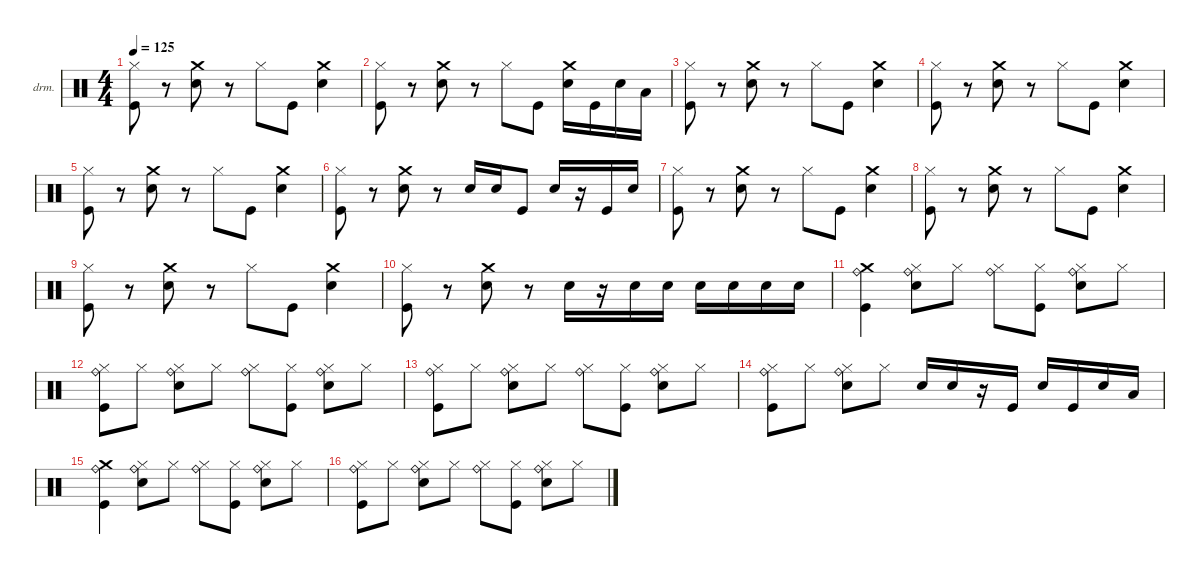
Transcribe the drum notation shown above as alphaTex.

\defaultSystemsLayout 4
\hideDynamics
\bracketExtendMode nobrackets
\firstSystemTrackNameOrientation horizontal
\otherSystemsTrackNameOrientation horizontal
\track ("Drum" "drm.") {instrument percussion}
\staff {score}
\articulation defaults
\ts (4 4)
\tempo 125
\clef neutral
\ks c
("Kick (hit)" "Hi-Hat (closed)").8{dy f} r.8 ("Snare (hit) 2" "Crash medium (hit)").8 r.8 "Hi-Hat (closed)".8 "Kick (hit)".8 ("Snare (hit) 2" "Crash medium (hit)").4 |
("Kick (hit)" "Hi-Hat (closed)").8 r.8 ("Snare (hit) 2" "Crash medium (hit)").8 r.8 "Hi-Hat (closed)".8 "Kick (hit)".8 ("Snare (hit) 2" "Crash medium (hit)").16 "Kick (hit)".16 "Snare (hit) 2".16 "Low Floor Tom (hit)".16 |
("Kick (hit)" "Hi-Hat (closed)").8 r.8 ("Snare (hit) 2" "Crash medium (hit)").8 r.8 "Hi-Hat (closed)".8 "Kick (hit)".8 ("Snare (hit) 2" "Crash medium (hit)").4 |
("Kick (hit)" "Hi-Hat (closed)").8 r.8 ("Snare (hit) 2" "Crash medium (hit)").8 r.8 "Hi-Hat (closed)".8 "Kick (hit)".8 ("Snare (hit) 2" "Crash medium (hit)").4 |
("Kick (hit)" "Hi-Hat (closed)").8 r.8 ("Snare (hit) 2" "Crash medium (hit)").8 r.8 "Hi-Hat (closed)".8 "Kick (hit)".8 ("Snare (hit) 2" "Crash medium (hit)").4 |
("Kick (hit)" "Hi-Hat (closed)").8 r.8 ("Snare (hit) 2" "Crash medium (hit)").8 r.8 "Snare (hit) 2".16 "Snare (hit) 2".16 "Kick (hit)".8 "Snare (hit) 2".16 r.16 "Kick (hit)".16 "Snare (hit) 2".16 |
("Kick (hit)" "Hi-Hat (closed)").8 r.8 ("Snare (hit) 2" "Crash medium (hit)").8 r.8 "Hi-Hat (closed)".8 "Kick (hit)".8 ("Snare (hit) 2" "Crash medium (hit)").4 |
("Kick (hit)" "Hi-Hat (closed)").8 r.8 ("Snare (hit) 2" "Crash medium (hit)").8 r.8 "Hi-Hat (closed)".8 "Kick (hit)".8 ("Snare (hit) 2" "Crash medium (hit)").4 |
("Kick (hit)" "Hi-Hat (closed)").8 r.8 ("Snare (hit) 2" "Crash medium (hit)").8 r.8 "Hi-Hat (closed)".8 "Kick (hit)".8 ("Snare (hit) 2" "Crash medium (hit)").4 |
("Kick (hit)" "Hi-Hat (closed)").8 r.8 ("Snare (hit) 2" "Crash medium (hit)").8 r.8 "Snare (hit) 2".16 r.16 "Snare (hit) 2".16 "Snare (hit) 2".16 "Snare (hit) 2".16 "Snare (hit) 2".16 "Snare (hit) 2".16 "Snare (hit) 2".16 |
("Kick (hit)" "Crash medium (hit)" "Ride (bell)").4 ("Snare (hit) 2" "Hi-Hat (closed)" "Ride (bell)").8 "Hi-Hat (closed)".8 ("Hi-Hat (closed)" "Ride (bell)").8 ("Kick (hit)" "Hi-Hat (closed)").8 ("Snare (hit) 2" "Hi-Hat (closed)" "Ride (bell)").8 "Hi-Hat (closed)".8 |
("Kick (hit)" "Hi-Hat (closed)" "Ride (bell)").8 "Hi-Hat (closed)".8 ("Snare (hit) 2" "Hi-Hat (closed)" "Ride (bell)").8 "Hi-Hat (closed)".8 ("Hi-Hat (closed)" "Ride (bell)").8 ("Kick (hit)" "Hi-Hat (closed)").8 ("Snare (hit) 2" "Hi-Hat (closed)" "Ride (bell)").8 "Hi-Hat (closed)".8 |
("Kick (hit)" "Hi-Hat (closed)" "Ride (bell)").8 "Hi-Hat (closed)".8 ("Snare (hit) 2" "Hi-Hat (closed)" "Ride (bell)").8 "Hi-Hat (closed)".8 ("Hi-Hat (closed)" "Ride (bell)").8 ("Kick (hit)" "Hi-Hat (closed)").8 ("Snare (hit) 2" "Hi-Hat (closed)" "Ride (bell)").8 "Hi-Hat (closed)".8 |
("Kick (hit)" "Hi-Hat (closed)" "Ride (bell)").8 "Hi-Hat (closed)".8 ("Snare (hit) 2" "Hi-Hat (closed)" "Ride (bell)").8 "Hi-Hat (closed)".8 "Snare (hit) 2".16 "Snare (hit) 2".16 r.16 "Kick (hit)".16 "Snare (hit) 2".16 "Kick (hit)".16 "Snare (hit) 2".16 "Low Tom (hit)".16 |
("Kick (hit)" "Crash medium (hit)" "Ride (bell)").4 ("Snare (hit) 2" "Hi-Hat (closed)" "Ride (bell)").8 "Hi-Hat (closed)".8 ("Hi-Hat (closed)" "Ride (bell)").8 ("Kick (hit)" "Hi-Hat (closed)").8 ("Snare (hit) 2" "Hi-Hat (closed)" "Ride (bell)").8 "Hi-Hat (closed)".8 |
("Kick (hit)" "Hi-Hat (closed)" "Ride (bell)").8 "Hi-Hat (closed)".8 ("Snare (hit) 2" "Hi-Hat (closed)" "Ride (bell)").8 "Hi-Hat (closed)".8 ("Hi-Hat (closed)" "Ride (bell)").8 ("Kick (hit)" "Hi-Hat (closed)").8 ("Snare (hit) 2" "Hi-Hat (closed)" "Ride (bell)").8 "Hi-Hat (closed)".8
